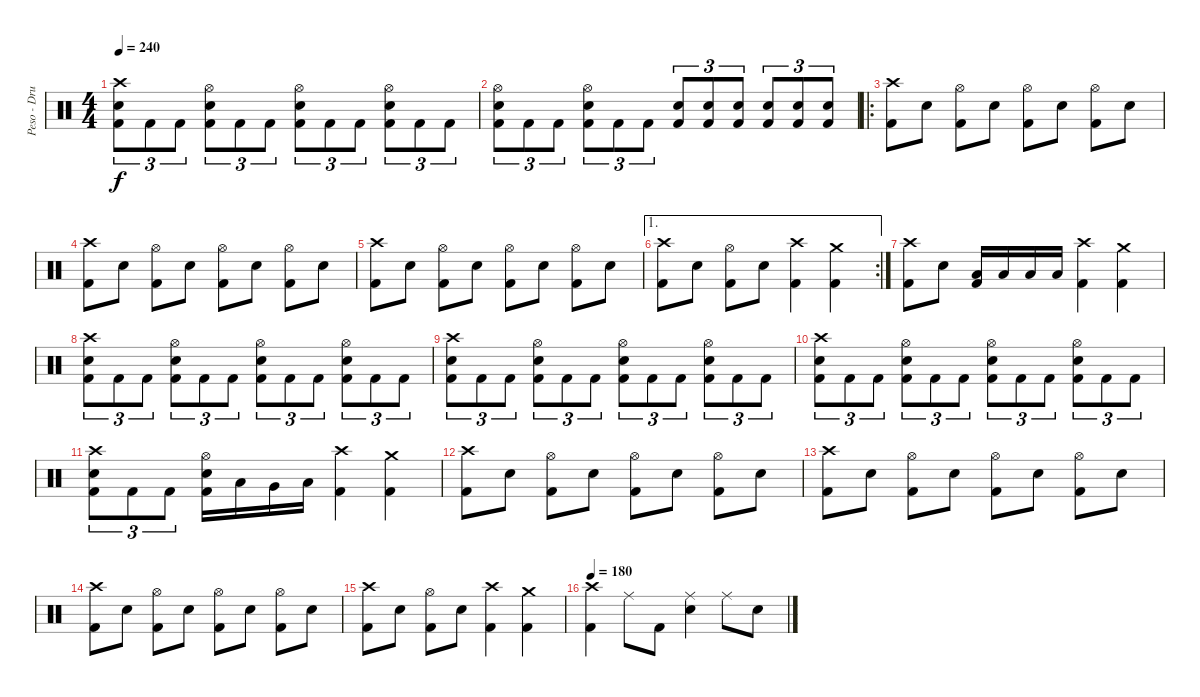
\track ("Peso - Drums" "Peso - Dru") {instrument percussion}
\staff {score}
\articulation defaults
\ts (4 4)
\tempo 240
\clef neutral
\ks c
("Crash high (hit)" "Electric Snare (hit)" "Kick (hit) 2").8{tu (3 2) dy f} "Kick (hit) 2".8{tu (3 2)} "Kick (hit) 2".8{tu (3 2)} ("Hi-Hat (open)" "Electric Snare (hit)" "Kick (hit) 2").8{tu (3 2)} "Kick (hit) 2".8{tu (3 2)} "Kick (hit) 2".8{tu (3 2)} ("Hi-Hat (open)" "Electric Snare (hit)" "Kick (hit) 2").8{tu (3 2)} "Kick (hit) 2".8{tu (3 2)} "Kick (hit) 2".8{tu (3 2)} ("Hi-Hat (open)" "Electric Snare (hit)" "Kick (hit) 2").8{tu (3 2)} "Kick (hit) 2".8{tu (3 2)} "Kick (hit) 2".8{tu (3 2)} |
("Hi-Hat (open)" "Electric Snare (hit)" "Kick (hit) 2").8{tu (3 2)} "Kick (hit) 2".8{tu (3 2)} "Kick (hit) 2".8{tu (3 2)} ("Hi-Hat (open)" "Electric Snare (hit)" "Kick (hit) 2").8{tu (3 2)} "Kick (hit) 2".8{tu (3 2)} "Kick (hit) 2".8{tu (3 2)} ("Electric Snare (hit)" "Kick (hit) 2").8{tu (3 2)} ("Electric Snare (hit)" "Kick (hit) 2").8{tu (3 2)} ("Electric Snare (hit)" "Kick (hit) 2").8{tu (3 2)} ("Electric Snare (hit)" "Kick (hit) 2").8{tu (3 2)} ("Electric Snare (hit)" "Kick (hit) 2").8{tu (3 2)} ("Electric Snare (hit)" "Kick (hit) 2").8{tu (3 2)} |
\ro
("Crash high (hit)" "Kick (hit) 2").8 "Electric Snare (hit)".8 ("Hi-Hat (open)" "Kick (hit) 2").8 "Electric Snare (hit)".8 ("Hi-Hat (open)" "Kick (hit) 2").8 "Electric Snare (hit)".8 ("Hi-Hat (open)" "Kick (hit) 2").8 "Electric Snare (hit)".8 |
("Crash high (hit)" "Kick (hit) 2").8 "Electric Snare (hit)".8 ("Hi-Hat (open)" "Kick (hit) 2").8 "Electric Snare (hit)".8 ("Hi-Hat (open)" "Kick (hit) 2").8 "Electric Snare (hit)".8 ("Hi-Hat (open)" "Kick (hit) 2").8 "Electric Snare (hit)".8 |
("Crash high (hit)" "Kick (hit) 2").8 "Electric Snare (hit)".8 ("Hi-Hat (open)" "Kick (hit) 2").8 "Electric Snare (hit)".8 ("Hi-Hat (open)" "Kick (hit) 2").8 "Electric Snare (hit)".8 ("Hi-Hat (open)" "Kick (hit) 2").8 "Electric Snare (hit)".8 |
\ae 1
\rc 2
("Crash high (hit)" "Kick (hit) 2").8 "Electric Snare (hit)".8 ("Hi-Hat (open)" "Kick (hit) 2").8 "Electric Snare (hit)".8 ("Crash high (hit)" "Kick (hit) 2").4 ("Crash medium (hit)" "Kick (hit) 2").4 |
("Crash high (hit)" "Kick (hit) 2").8 "Electric Snare (hit)".8 ("Low Tom (hit)" "Kick (hit) 2").16 "Low Tom (hit)".16 "Low Floor Tom (hit)".16 "Low Floor Tom (hit)".16 ("Crash high (hit)" "Kick (hit) 2").4 ("Crash medium (hit)" "Kick (hit) 2").4 |
("Crash high (hit)" "Electric Snare (hit)" "Kick (hit) 2").8{tu (3 2)} "Kick (hit) 2".8{tu (3 2)} "Kick (hit) 2".8{tu (3 2)} ("Hi-Hat (open)" "Electric Snare (hit)" "Kick (hit) 2").8{tu (3 2)} "Kick (hit) 2".8{tu (3 2)} "Kick (hit) 2".8{tu (3 2)} ("Hi-Hat (open)" "Electric Snare (hit)" "Kick (hit) 2").8{tu (3 2)} "Kick (hit) 2".8{tu (3 2)} "Kick (hit) 2".8{tu (3 2)} ("Hi-Hat (open)" "Electric Snare (hit)" "Kick (hit) 2").8{tu (3 2)} "Kick (hit) 2".8{tu (3 2)} "Kick (hit) 2".8{tu (3 2)} |
("Crash high (hit)" "Electric Snare (hit)" "Kick (hit) 2").8{tu (3 2)} "Kick (hit) 2".8{tu (3 2)} "Kick (hit) 2".8{tu (3 2)} ("Hi-Hat (open)" "Electric Snare (hit)" "Kick (hit) 2").8{tu (3 2)} "Kick (hit) 2".8{tu (3 2)} "Kick (hit) 2".8{tu (3 2)} ("Hi-Hat (open)" "Electric Snare (hit)" "Kick (hit) 2").8{tu (3 2)} "Kick (hit) 2".8{tu (3 2)} "Kick (hit) 2".8{tu (3 2)} ("Hi-Hat (open)" "Electric Snare (hit)" "Kick (hit) 2").8{tu (3 2)} "Kick (hit) 2".8{tu (3 2)} "Kick (hit) 2".8{tu (3 2)} |
("Crash high (hit)" "Electric Snare (hit)" "Kick (hit) 2").8{tu (3 2)} "Kick (hit) 2".8{tu (3 2)} "Kick (hit) 2".8{tu (3 2)} ("Hi-Hat (open)" "Electric Snare (hit)" "Kick (hit) 2").8{tu (3 2)} "Kick (hit) 2".8{tu (3 2)} "Kick (hit) 2".8{tu (3 2)} ("Hi-Hat (open)" "Electric Snare (hit)" "Kick (hit) 2").8{tu (3 2)} "Kick (hit) 2".8{tu (3 2)} "Kick (hit) 2".8{tu (3 2)} ("Hi-Hat (open)" "Electric Snare (hit)" "Kick (hit) 2").8{tu (3 2)} "Kick (hit) 2".8{tu (3 2)} "Kick (hit) 2".8{tu (3 2)} |
("Crash high (hit)" "Electric Snare (hit)" "Kick (hit) 2").8{tu (3 2)} "Kick (hit) 2".8{tu (3 2)} "Kick (hit) 2".8{tu (3 2)} ("Hi-Hat (open)" "Electric Snare (hit)" "Kick (hit) 2").16 "Low Tom (hit)".16 "Very Low Tom (hit)".16 "Low Floor Tom (hit)".16 ("Crash high (hit)" "Kick (hit) 2").4 ("Crash medium (hit)" "Kick (hit) 2").4 |
("Crash high (hit)" "Kick (hit) 2").8 "Electric Snare (hit)".8 ("Hi-Hat (open)" "Kick (hit) 2").8 "Electric Snare (hit)".8 ("Hi-Hat (open)" "Kick (hit) 2").8 "Electric Snare (hit)".8 ("Hi-Hat (open)" "Kick (hit) 2").8 "Electric Snare (hit)".8 |
("Crash high (hit)" "Kick (hit) 2").8 "Electric Snare (hit)".8 ("Hi-Hat (open)" "Kick (hit) 2").8 "Electric Snare (hit)".8 ("Hi-Hat (open)" "Kick (hit) 2").8 "Electric Snare (hit)".8 ("Hi-Hat (open)" "Kick (hit) 2").8 "Electric Snare (hit)".8 |
("Crash high (hit)" "Kick (hit) 2").8 "Electric Snare (hit)".8 ("Hi-Hat (open)" "Kick (hit) 2").8 "Electric Snare (hit)".8 ("Hi-Hat (open)" "Kick (hit) 2").8 "Electric Snare (hit)".8 ("Hi-Hat (open)" "Kick (hit) 2").8 "Electric Snare (hit)".8 |
("Crash high (hit)" "Kick (hit) 2").8 "Electric Snare (hit)".8 ("Hi-Hat (open)" "Kick (hit) 2").8 "Electric Snare (hit)".8 ("Crash high (hit)" "Kick (hit) 2").4 ("Crash medium (hit)" "Kick (hit) 2").4 |
\tempo 180
("Crash high (hit)" "Kick (hit) 2").4 "Ride (middle)".8 "Kick (hit) 2".8 ("Ride (middle)" "Electric Snare (hit)").4 "Ride (middle)".8 "Electric Snare (hit)".8
